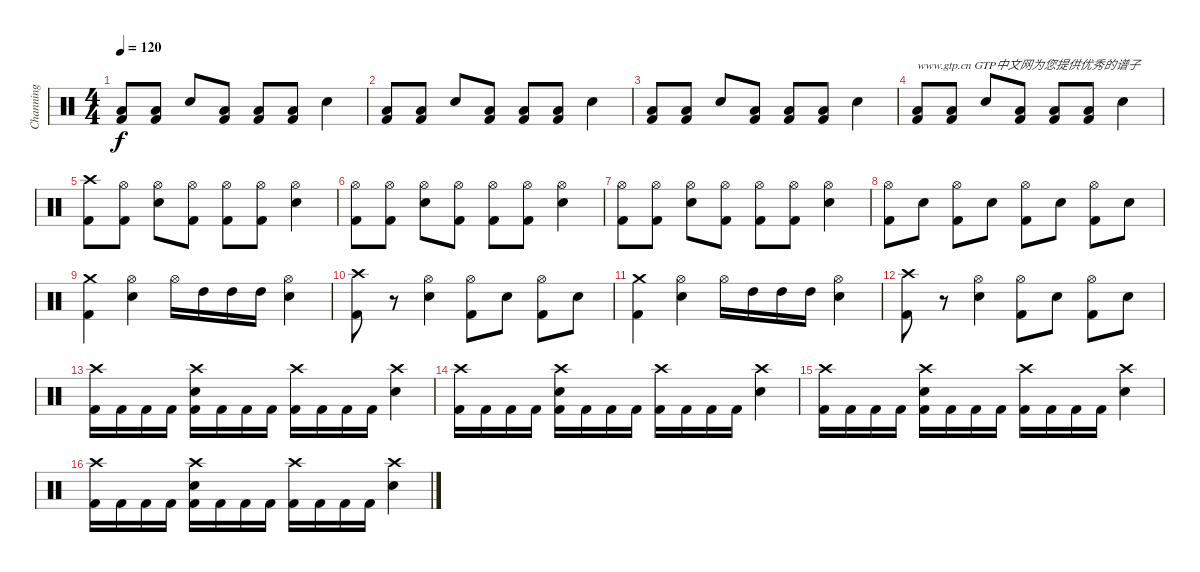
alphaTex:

\track ("Channing" "Channing") {instrument percussion}
\staff {score}
\articulation defaults
\ts (4 4)
\tempo 120
\clef neutral
\ks c
("Low Tom (hit)" "Kick (hit) 2").8{dy f} ("Low Tom (hit)" "Kick (hit) 2").8 "Snare (hit) 2".8 ("Low Tom (hit)" "Kick (hit) 2").8 ("Low Tom (hit)" "Kick (hit) 2").8 ("Low Tom (hit)" "Kick (hit) 2").8 "Snare (hit) 2".4 |
("Low Tom (hit)" "Kick (hit) 2").8 ("Low Tom (hit)" "Kick (hit) 2").8 "Snare (hit) 2".8 ("Low Tom (hit)" "Kick (hit) 2").8 ("Low Tom (hit)" "Kick (hit) 2").8 ("Low Tom (hit)" "Kick (hit) 2").8 "Snare (hit) 2".4 |
("Low Tom (hit)" "Kick (hit) 2").8 ("Low Tom (hit)" "Kick (hit) 2").8 "Snare (hit) 2".8 ("Low Tom (hit)" "Kick (hit) 2").8 ("Low Tom (hit)" "Kick (hit) 2").8 ("Low Tom (hit)" "Kick (hit) 2").8 "Snare (hit) 2".4 |
("Low Tom (hit)" "Kick (hit) 2").8{txt "www.gtp.cn GTP中文网为您提供优秀的谱子"} ("Low Tom (hit)" "Kick (hit) 2").8 "Snare (hit) 2".8 ("Low Tom (hit)" "Kick (hit) 2").8 ("Low Tom (hit)" "Kick (hit) 2").8 ("Low Tom (hit)" "Kick (hit) 2").8 "Snare (hit) 2".4 |
("Crash high (hit)" "Kick (hit) 2").8 ("Hi-Hat (open)" "Kick (hit) 2").8 ("Hi-Hat (open)" "Snare (hit) 2").8 ("Hi-Hat (open)" "Kick (hit) 2").8 ("Hi-Hat (open)" "Kick (hit) 2").8 ("Hi-Hat (open)" "Kick (hit) 2").8 ("Hi-Hat (open)" "Snare (hit) 2").4 |
("Hi-Hat (open)" "Kick (hit) 2").8 ("Hi-Hat (open)" "Kick (hit) 2").8 ("Hi-Hat (open)" "Snare (hit) 2").8 ("Hi-Hat (open)" "Kick (hit) 2").8 ("Hi-Hat (open)" "Kick (hit) 2").8 ("Hi-Hat (open)" "Kick (hit) 2").8 ("Hi-Hat (open)" "Snare (hit) 2").4 |
("Hi-Hat (open)" "Kick (hit) 2").8 ("Hi-Hat (open)" "Kick (hit) 2").8 ("Hi-Hat (open)" "Snare (hit) 2").8 ("Hi-Hat (open)" "Kick (hit) 2").8 ("Hi-Hat (open)" "Kick (hit) 2").8 ("Hi-Hat (open)" "Kick (hit) 2").8 ("Hi-Hat (open)" "Snare (hit) 2").4 |
("Hi-Hat (open)" "Kick (hit) 2").8 "Snare (hit) 2".8 ("Hi-Hat (open)" "Kick (hit) 2").8 "Snare (hit) 2".8 ("Hi-Hat (open)" "Kick (hit) 2").8 "Snare (hit) 2".8 ("Hi-Hat (open)" "Kick (hit) 2").8 "Snare (hit) 2".8 |
("Crash medium (hit)" "Kick (hit) 2").4 ("Hi-Hat (open)" "Snare (hit) 2").4 "Hi-Hat (open)".16 "High Tom (hit)".16 "High Tom (hit)".16 "High Tom (hit)".16 ("Hi-Hat (open)" "Snare (hit) 2").4 |
("Crash high (hit)" "Kick (hit) 2").8 r.8 ("Hi-Hat (open)" "Snare (hit) 2").4 ("Hi-Hat (open)" "Kick (hit) 2").8 "Snare (hit) 2".8 ("Hi-Hat (open)" "Kick (hit) 2").8 "Snare (hit) 2".8 |
("Crash medium (hit)" "Kick (hit) 2").4 ("Hi-Hat (open)" "Snare (hit) 2").4 "Hi-Hat (open)".16 "High Tom (hit)".16 "High Tom (hit)".16 "High Tom (hit)".16 ("Hi-Hat (open)" "Snare (hit) 2").4 |
("Crash high (hit)" "Kick (hit) 2").8 r.8 ("Hi-Hat (open)" "Snare (hit) 2").4 ("Hi-Hat (open)" "Kick (hit) 2").8 "Snare (hit) 2".8 ("Hi-Hat (open)" "Kick (hit) 2").8 "Snare (hit) 2".8 |
("Crash high (hit)" "Kick (hit) 2").16 "Kick (hit) 2".16 "Kick (hit) 2".16 "Kick (hit) 2".16 ("Crash high (hit)" "Snare (hit) 2" "Kick (hit) 2").16 "Kick (hit) 2".16 "Kick (hit) 2".16 "Kick (hit) 2".16 ("Crash high (hit)" "Kick (hit) 2").16 "Kick (hit) 2".16 "Kick (hit) 2".16 "Kick (hit) 2".16 ("Crash high (hit)" "Snare (hit) 2").4 |
("Crash high (hit)" "Kick (hit) 2").16 "Kick (hit) 2".16 "Kick (hit) 2".16 "Kick (hit) 2".16 ("Crash high (hit)" "Snare (hit) 2" "Kick (hit) 2").16 "Kick (hit) 2".16 "Kick (hit) 2".16 "Kick (hit) 2".16 ("Crash high (hit)" "Kick (hit) 2").16 "Kick (hit) 2".16 "Kick (hit) 2".16 "Kick (hit) 2".16 ("Crash high (hit)" "Snare (hit) 2").4 |
("Crash high (hit)" "Kick (hit) 2").16 "Kick (hit) 2".16 "Kick (hit) 2".16 "Kick (hit) 2".16 ("Crash high (hit)" "Snare (hit) 2" "Kick (hit) 2").16 "Kick (hit) 2".16 "Kick (hit) 2".16 "Kick (hit) 2".16 ("Crash high (hit)" "Kick (hit) 2").16 "Kick (hit) 2".16 "Kick (hit) 2".16 "Kick (hit) 2".16 ("Crash high (hit)" "Snare (hit) 2").4 |
("Crash high (hit)" "Kick (hit) 2").16 "Kick (hit) 2".16 "Kick (hit) 2".16 "Kick (hit) 2".16 ("Crash high (hit)" "Snare (hit) 2" "Kick (hit) 2").16 "Kick (hit) 2".16 "Kick (hit) 2".16 "Kick (hit) 2".16 ("Crash high (hit)" "Kick (hit) 2").16 "Kick (hit) 2".16 "Kick (hit) 2".16 "Kick (hit) 2".16 ("Crash high (hit)" "Snare (hit) 2").4
